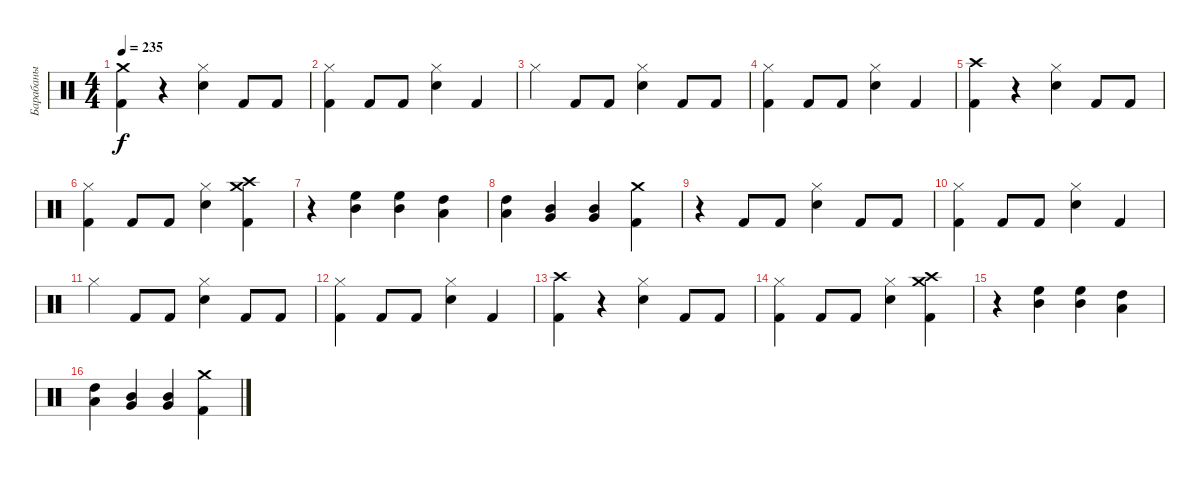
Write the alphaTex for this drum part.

\track ("Барабаны" "Барабаны") {instrument percussion}
\staff {score}
\articulation defaults
\ts (4 4)
\tempo 235
\clef neutral
\ks c
("Kick (hit) 2" "Crash medium (hit)").4{dy f} r.4 ("Hi-Hat (closed)" "Electric Snare (hit)").4 "Kick (hit) 2".8 "Kick (hit) 2".8 |
("Hi-Hat (closed)" "Kick (hit) 2").4 "Kick (hit) 2".8 "Kick (hit) 2".8 ("Hi-Hat (closed)" "Electric Snare (hit)").4 "Kick (hit) 2".4 |
"Hi-Hat (closed)".4 "Kick (hit) 2".8 "Kick (hit) 2".8 ("Electric Snare (hit)" "Hi-Hat (closed)").4 "Kick (hit) 2".8 "Kick (hit) 2".8 |
("Kick (hit) 2" "Hi-Hat (closed)").4 "Kick (hit) 2".8 "Kick (hit) 2".8 ("Electric Snare (hit)" "Hi-Hat (closed)").4 "Kick (hit) 2".4 |
("Kick (hit) 2" "Crash high (hit)").4 r.4 ("Hi-Hat (closed)" "Electric Snare (hit)").4 "Kick (hit) 2".8 "Kick (hit) 2".8 |
("Hi-Hat (closed)" "Kick (hit) 2").4 "Kick (hit) 2".8 "Kick (hit) 2".8 ("Hi-Hat (closed)" "Electric Snare (hit)").4 ("Crash high (hit)" "Crash medium (hit)" "Kick (hit) 2").4 |
r.4 ("High Floor Tom (hit)" "Mid Tom (hit)").4 ("High Floor Tom (hit)" "Mid Tom (hit)").4 ("High Tom (hit)" "Low Tom (hit)").4 |
("High Tom (hit)" "Low Tom (hit)").4 ("Mid Tom (hit)" "Very Low Tom (hit)").4 ("Mid Tom (hit)" "Very Low Tom (hit)").4 ("Crash medium (hit)" "Kick (hit) 2").4 |
r.4 "Kick (hit) 2".8 "Kick (hit) 2".8 ("Hi-Hat (closed)" "Electric Snare (hit)").4 "Kick (hit) 2".8 "Kick (hit) 2".8 |
("Hi-Hat (closed)" "Kick (hit) 2").4 "Kick (hit) 2".8 "Kick (hit) 2".8 ("Hi-Hat (closed)" "Electric Snare (hit)").4 "Kick (hit) 2".4 |
"Hi-Hat (closed)".4 "Kick (hit) 2".8 "Kick (hit) 2".8 ("Electric Snare (hit)" "Hi-Hat (closed)").4 "Kick (hit) 2".8 "Kick (hit) 2".8 |
("Kick (hit) 2" "Hi-Hat (closed)").4 "Kick (hit) 2".8 "Kick (hit) 2".8 ("Electric Snare (hit)" "Hi-Hat (closed)").4 "Kick (hit) 2".4 |
("Kick (hit) 2" "Crash high (hit)").4 r.4 ("Hi-Hat (closed)" "Electric Snare (hit)").4 "Kick (hit) 2".8 "Kick (hit) 2".8 |
("Hi-Hat (closed)" "Kick (hit) 2").4 "Kick (hit) 2".8 "Kick (hit) 2".8 ("Hi-Hat (closed)" "Electric Snare (hit)").4 ("Crash high (hit)" "Crash medium (hit)" "Kick (hit) 2").4 |
r.4 ("High Floor Tom (hit)" "Mid Tom (hit)").4 ("High Floor Tom (hit)" "Mid Tom (hit)").4 ("High Tom (hit)" "Low Tom (hit)").4 |
("High Tom (hit)" "Low Tom (hit)").4 ("Mid Tom (hit)" "Very Low Tom (hit)").4 ("Mid Tom (hit)" "Very Low Tom (hit)").4 ("Crash medium (hit)" "Kick (hit) 2").4
